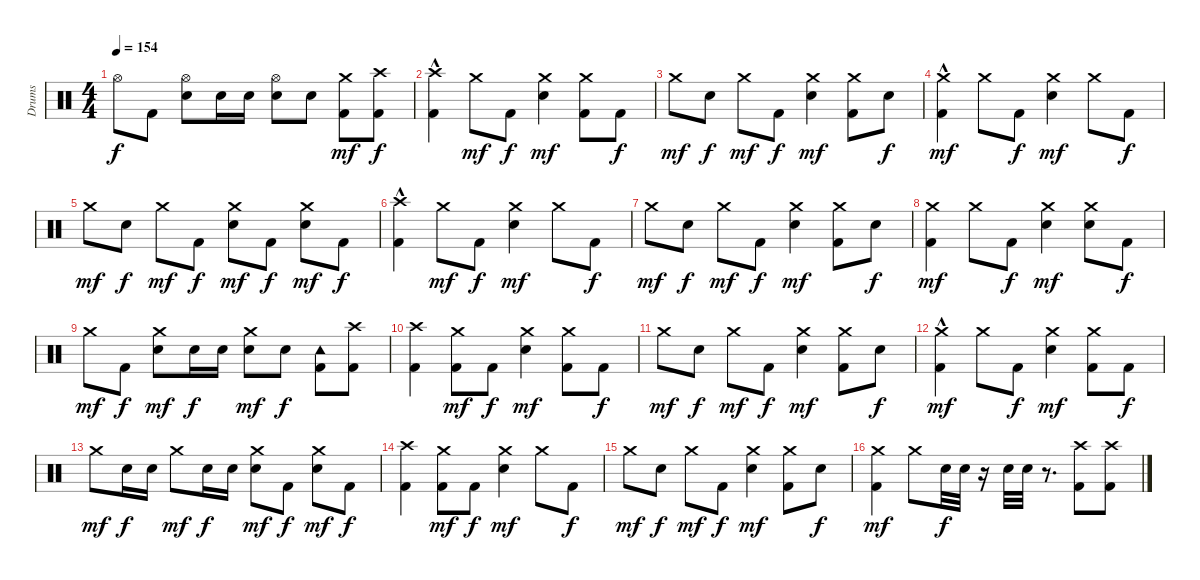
\track ("Drums" "Drums") {instrument percussion}
\staff {score}
\articulation defaults
\ts (4 4)
\tempo 154
\clef neutral
\ks c "Hi-Hat (open)".8{dy f} "Kick (hit) 2".8
("Electric Snare (hit)" "Hi-Hat (open)").8 "Electric Snare (hit)".16 "Electric Snare (hit)".16 ("Electric Snare (hit)" "Hi-Hat (open)").8 "Electric Snare (hit)".8 ("Kick (hit) 2" "Crash medium (hit)").8{dy mf} ("Kick (hit) 2" "Crash high (hit)").8{dy f} |
("Kick (hit) 2"{hac} "Crash high (hit)").4 "Crash medium (hit)".8{dy mf} "Kick (hit) 2".8{dy f} ("Electric Snare (hit)" "Crash medium (hit)").4{dy mf} ("Kick (hit) 2" "Crash medium (hit)").8 "Kick (hit) 2".8{dy f} |
"Crash medium (hit)".8{dy mf} "Electric Snare (hit)".8{dy f} "Crash medium (hit)".8{dy mf} "Kick (hit) 2".8{dy f} ("Electric Snare (hit)" "Crash medium (hit)").4{dy mf} ("Kick (hit) 2" "Crash medium (hit)").8 "Electric Snare (hit)".8{dy f} |
("Kick (hit) 2"{hac} "Crash medium (hit)").4{dy mf} "Crash medium (hit)".8 "Kick (hit) 2".8{dy f} ("Electric Snare (hit)" "Crash medium (hit)").4{dy mf} "Crash medium (hit)".8 "Kick (hit) 2".8{dy f} |
"Crash medium (hit)".8{dy mf} "Electric Snare (hit)".8{dy f} "Crash medium (hit)".8{dy mf} "Kick (hit) 2".8{dy f} ("Electric Snare (hit)" "Crash medium (hit)").8{dy mf} "Kick (hit) 2".8{dy f} ("Electric Snare (hit)" "Crash medium (hit)").8{dy mf} "Kick (hit) 2".8{dy f} |
("Kick (hit) 2"{hac} "Crash high (hit)").4 "Crash medium (hit)".8{dy mf} "Kick (hit) 2".8{dy f} ("Electric Snare (hit)" "Crash medium (hit)").4{dy mf} "Crash medium (hit)".8 "Kick (hit) 2".8{dy f} |
"Crash medium (hit)".8{dy mf} "Electric Snare (hit)".8{dy f} "Crash medium (hit)".8{dy mf} "Kick (hit) 2".8{dy f} ("Electric Snare (hit)" "Crash medium (hit)").4{dy mf} ("Kick (hit) 2" "Crash medium (hit)").8 "Electric Snare (hit)".8{dy f} |
("Kick (hit) 2" "Crash medium (hit)").4{dy mf} "Crash medium (hit)".8 "Kick (hit) 2".8{dy f} ("Electric Snare (hit)" "Crash medium (hit)").4{dy mf} ("Electric Snare (hit)" "Crash medium (hit)").8 "Kick (hit) 2".8{dy f} |
"Crash medium (hit)".8{dy mf} "Kick (hit) 2".8{dy f} ("Electric Snare (hit)" "Crash medium (hit)").8{dy mf} "Electric Snare (hit)".16{dy f} "Electric Snare (hit)".16 ("Electric Snare (hit)" "Crash medium (hit)").8{dy mf} "Electric Snare (hit)".8{dy f} ("Kick (hit) 2" "Tambourine (hit)").8 ("Kick (hit) 2" "Crash high (hit)").8 |
("Crash high (hit)" "Kick (hit) 2").4 ("Kick (hit) 2" "Crash medium (hit)").8{dy mf} "Kick (hit) 2".8{dy f} ("Electric Snare (hit)" "Crash medium (hit)").4{dy mf} ("Kick (hit) 2" "Crash medium (hit)").8 "Kick (hit) 2".8{dy f} |
"Crash medium (hit)".8{dy mf} "Electric Snare (hit)".8{dy f} "Crash medium (hit)".8{dy mf} "Kick (hit) 2".8{dy f} ("Electric Snare (hit)" "Crash medium (hit)").4{dy mf} ("Kick (hit) 2" "Crash medium (hit)").8 "Electric Snare (hit)".8{dy f} |
("Kick (hit) 2"{hac} "Crash medium (hit)").4{dy mf} "Crash medium (hit)".8 "Kick (hit) 2".8{dy f} ("Electric Snare (hit)" "Crash medium (hit)").4{dy mf} ("Kick (hit) 2" "Crash medium (hit)").8 "Kick (hit) 2".8{dy f} |
"Crash medium (hit)".8{dy mf} "Electric Snare (hit)".16{dy f} "Electric Snare (hit)".16 "Crash medium (hit)".8{dy mf} "Electric Snare (hit)".16{dy f} "Electric Snare (hit)".16 ("Electric Snare (hit)" "Crash medium (hit)").8{dy mf} "Kick (hit) 2".8{dy f} ("Electric Snare (hit)" "Crash medium (hit)").8{dy mf} "Kick (hit) 2".8{dy f} |
("Crash high (hit)" "Kick (hit) 2").4 ("Kick (hit) 2" "Crash medium (hit)").8{dy mf} "Kick (hit) 2".8{dy f} ("Electric Snare (hit)" "Crash medium (hit)").4{dy mf} "Crash medium (hit)".8 "Kick (hit) 2".8{dy f} |
"Crash medium (hit)".8{dy mf} "Electric Snare (hit)".8{dy f} "Crash medium (hit)".8{dy mf} "Kick (hit) 2".8{dy f} ("Electric Snare (hit)" "Crash medium (hit)").4{dy mf} ("Kick (hit) 2" "Crash medium (hit)").8 "Electric Snare (hit)".8{dy f} |
("Kick (hit) 2" "Crash medium (hit)").4{dy mf} "Crash medium (hit)".8 "Electric Snare (hit)".32{dy f} "Electric Snare (hit)".32 r.16 "Electric Snare (hit)".32 "Electric Snare (hit)".32 r.8{d} ("Kick (hit) 2" "Crash high (hit)").8 ("Kick (hit) 2" "Crash high (hit)").8
